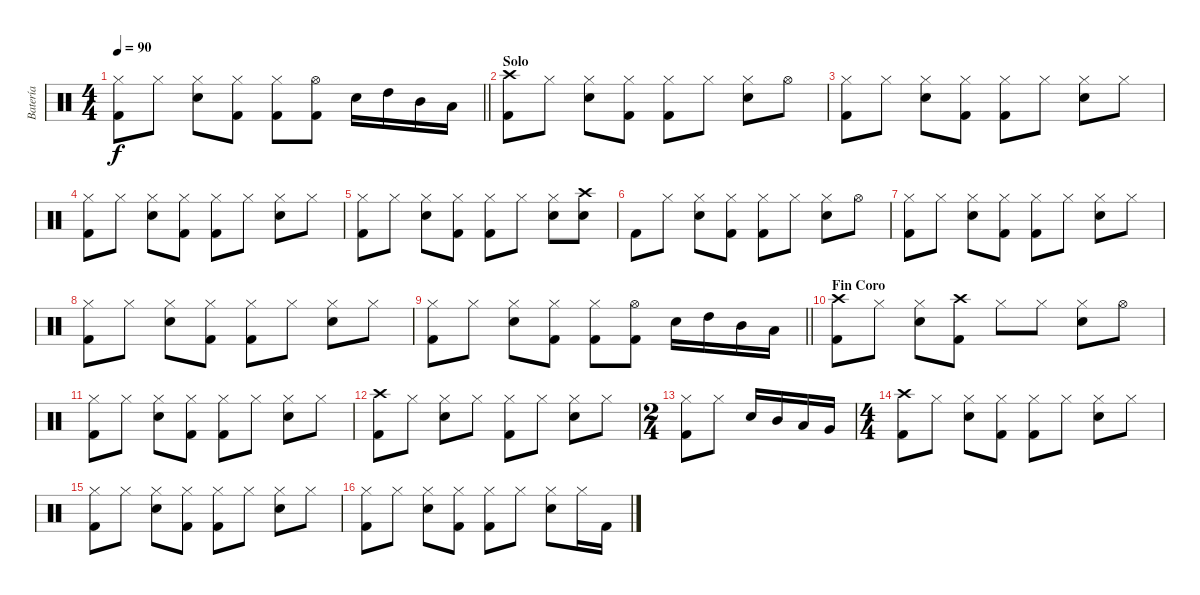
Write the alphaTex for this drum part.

\track ("Batería" "Batería") {instrument percussion}
\staff {score}
\articulation defaults
\ts (4 4)
\tempo 90
\clef neutral
\barLineRight lightlight
\ks c
("Kick (hit) 2" "Hi-Hat (closed)").8{dy f} "Hi-Hat (closed)".8 ("Electric Snare (hit)" "Hi-Hat (closed)").8 ("Kick (hit) 2" "Hi-Hat (closed)").8 ("Kick (hit) 2" "Hi-Hat (closed)").8 ("Kick (hit) 2" "Hi-Hat (open)").8 "Electric Snare (hit)".16 "High Tom (hit)".16 "Mid Tom (hit)".16 "Low Tom (hit)".16 |
\section ("" "Solo")
("Kick (hit) 2" "Crash high (hit)").8 "Hi-Hat (closed)".8 ("Electric Snare (hit)" "Hi-Hat (closed)").8 ("Kick (hit) 2" "Hi-Hat (closed)").8 ("Kick (hit) 2" "Hi-Hat (closed)").8 "Hi-Hat (closed)".8 ("Electric Snare (hit)" "Hi-Hat (closed)").8 "Hi-Hat (open)".8 |
("Kick (hit) 2" "Hi-Hat (closed)").8 "Hi-Hat (closed)".8 ("Electric Snare (hit)" "Hi-Hat (closed)").8 ("Kick (hit) 2" "Hi-Hat (closed)").8 ("Kick (hit) 2" "Hi-Hat (closed)").8 "Hi-Hat (closed)".8 ("Electric Snare (hit)" "Hi-Hat (closed)").8 "Hi-Hat (closed)".8 |
("Kick (hit) 2" "Hi-Hat (closed)").8 "Hi-Hat (closed)".8 ("Electric Snare (hit)" "Hi-Hat (closed)").8 ("Kick (hit) 2" "Hi-Hat (closed)").8 ("Kick (hit) 2" "Hi-Hat (closed)").8 "Hi-Hat (closed)".8 ("Electric Snare (hit)" "Hi-Hat (closed)").8 "Hi-Hat (closed)".8 |
("Kick (hit) 2" "Hi-Hat (closed)").8 "Hi-Hat (closed)".8 ("Electric Snare (hit)" "Hi-Hat (closed)").8 ("Kick (hit) 2" "Hi-Hat (closed)").8 ("Kick (hit) 2" "Hi-Hat (closed)").8 "Hi-Hat (closed)".8 ("Electric Snare (hit)" "Hi-Hat (closed)").8 ("Electric Snare (hit)" "Crash high (hit)").8 |
"Kick (hit) 2".8 "Hi-Hat (closed)".8 ("Electric Snare (hit)" "Hi-Hat (closed)").8 ("Kick (hit) 2" "Hi-Hat (closed)").8 ("Kick (hit) 2" "Hi-Hat (closed)").8 "Hi-Hat (closed)".8 ("Electric Snare (hit)" "Hi-Hat (closed)").8 "Hi-Hat (open)".8 |
("Kick (hit) 2" "Hi-Hat (closed)").8 "Hi-Hat (closed)".8 ("Electric Snare (hit)" "Hi-Hat (closed)").8 ("Kick (hit) 2" "Hi-Hat (closed)").8 ("Kick (hit) 2" "Hi-Hat (closed)").8 "Hi-Hat (closed)".8 ("Electric Snare (hit)" "Hi-Hat (closed)").8 "Hi-Hat (closed)".8 |
("Kick (hit) 2" "Hi-Hat (closed)").8 "Hi-Hat (closed)".8 ("Electric Snare (hit)" "Hi-Hat (closed)").8 ("Kick (hit) 2" "Hi-Hat (closed)").8 ("Kick (hit) 2" "Hi-Hat (closed)").8 "Hi-Hat (closed)".8 ("Electric Snare (hit)" "Hi-Hat (closed)").8 "Hi-Hat (closed)".8 |
\barLineRight lightlight
("Kick (hit) 2" "Hi-Hat (closed)").8 "Hi-Hat (closed)".8 ("Electric Snare (hit)" "Hi-Hat (closed)").8 ("Kick (hit) 2" "Hi-Hat (closed)").8 ("Kick (hit) 2" "Hi-Hat (closed)").8 ("Kick (hit) 2" "Hi-Hat (open)").8 "Electric Snare (hit)".16 "High Tom (hit)".16 "Mid Tom (hit)".16 "Low Tom (hit)".16 |
\section ("" "Fin Coro")
("Crash high (hit)" "Kick (hit) 2").8 "Hi-Hat (closed)".8 ("Hi-Hat (closed)" "Electric Snare (hit)").8 ("Crash high (hit)" "Kick (hit) 2").8 "Hi-Hat (closed)".8 "Hi-Hat (closed)".8 ("Hi-Hat (closed)" "Electric Snare (hit)").8 "Hi-Hat (open)".8 |
("Kick (hit) 2" "Hi-Hat (closed)").8 "Hi-Hat (closed)".8 ("Electric Snare (hit)" "Hi-Hat (closed)").8 ("Kick (hit) 2" "Hi-Hat (closed)").8 ("Kick (hit) 2" "Hi-Hat (closed)").8 "Hi-Hat (closed)".8 ("Electric Snare (hit)" "Hi-Hat (closed)").8 "Hi-Hat (closed)".8 |
("Kick (hit) 2" "Crash high (hit)").8 "Hi-Hat (closed)".8 ("Electric Snare (hit)" "Hi-Hat (closed)").8 "Hi-Hat (closed)".8 ("Kick (hit) 2" "Hi-Hat (closed)").8 "Hi-Hat (closed)".8 ("Electric Snare (hit)" "Hi-Hat (closed)").8 "Hi-Hat (closed)".8 |
\ts (2 4)
("Kick (hit) 2" "Hi-Hat (closed)").8 "Hi-Hat (closed)".8 "Electric Snare (hit)".16 "Mid Tom (hit)".16 "Low Tom (hit)".16 "Very Low Tom (hit)".16 |
\ts (4 4)
("Kick (hit) 2" "Crash high (hit)").8 "Hi-Hat (closed)".8 ("Electric Snare (hit)" "Hi-Hat (closed)").8 ("Kick (hit) 2" "Hi-Hat (closed)").8 ("Kick (hit) 2" "Hi-Hat (closed)").8 "Hi-Hat (closed)".8 ("Electric Snare (hit)" "Hi-Hat (closed)").8 "Hi-Hat (closed)".8 |
("Kick (hit) 2" "Hi-Hat (closed)").8 "Hi-Hat (closed)".8 ("Electric Snare (hit)" "Hi-Hat (closed)").8 ("Kick (hit) 2" "Hi-Hat (closed)").8 ("Kick (hit) 2" "Hi-Hat (closed)").8 "Hi-Hat (closed)".8 ("Electric Snare (hit)" "Hi-Hat (closed)").8 "Hi-Hat (closed)".8 |
("Kick (hit) 2" "Hi-Hat (closed)").8 "Hi-Hat (closed)".8 ("Electric Snare (hit)" "Hi-Hat (closed)").8 ("Kick (hit) 2" "Hi-Hat (closed)").8 ("Kick (hit) 2" "Hi-Hat (closed)").8 "Hi-Hat (closed)".8 ("Electric Snare (hit)" "Hi-Hat (closed)").8 "Hi-Hat (closed)".16 "Kick (hit) 2".16
